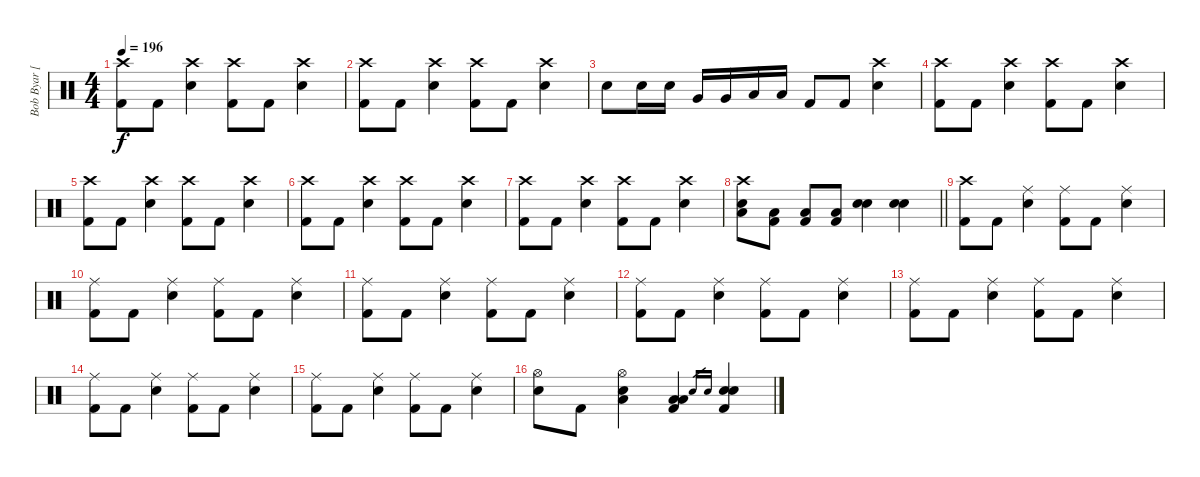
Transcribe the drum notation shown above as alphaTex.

\track ("Bob Byar [Drums]" "Bob Byar [") {instrument percussion}
\staff {score}
\articulation defaults
\ts (4 4)
\tempo 196
\clef neutral
\ks c
("Crash high (hit)" "Kick (hit) 2").8{dy f} "Kick (hit) 2".8 ("Crash high (hit)" "Electric Snare (hit)").4 ("Crash high (hit)" "Kick (hit) 2").8 "Kick (hit) 2".8 ("Crash high (hit)" "Electric Snare (hit)").4 |
("Crash high (hit)" "Kick (hit) 2").8 "Kick (hit) 2".8 ("Crash high (hit)" "Electric Snare (hit)").4 ("Crash high (hit)" "Kick (hit) 2").8 "Kick (hit) 2".8 ("Crash high (hit)" "Electric Snare (hit)").4 |
"Electric Snare (hit)".8 "Electric Snare (hit)".16 "Electric Snare (hit)".16 "Very Low Tom (hit)".16 "Very Low Tom (hit)".16 "Low Floor Tom (hit)".16 "Low Floor Tom (hit)".16 "Kick (hit) 2".8 "Kick (hit) 2".8 ("Crash high (hit)" "Electric Snare (hit)").4 |
("Crash high (hit)" "Kick (hit) 2").8 "Kick (hit) 2".8 ("Crash high (hit)" "Electric Snare (hit)").4 ("Crash high (hit)" "Kick (hit) 2").8 "Kick (hit) 2".8 ("Crash high (hit)" "Electric Snare (hit)").4 |
("Crash high (hit)" "Kick (hit) 2").8 "Kick (hit) 2".8 ("Crash high (hit)" "Electric Snare (hit)").4 ("Crash high (hit)" "Kick (hit) 2").8 "Kick (hit) 2".8 ("Crash high (hit)" "Electric Snare (hit)").4 |
("Crash high (hit)" "Kick (hit) 2").8 "Kick (hit) 2".8 ("Crash high (hit)" "Electric Snare (hit)").4 ("Crash high (hit)" "Kick (hit) 2").8 "Kick (hit) 2".8 ("Crash high (hit)" "Electric Snare (hit)").4 |
("Crash high (hit)" "Kick (hit) 2").8 "Kick (hit) 2".8 ("Crash high (hit)" "Electric Snare (hit)").4 ("Crash high (hit)" "Kick (hit) 2").8 "Kick (hit) 2".8 ("Crash high (hit)" "Electric Snare (hit)").4 |
\barLineRight lightlight
("Crash high (hit)" "Electric Snare (hit)" "Low Floor Tom (hit)").8 ("Low Floor Tom (hit)" "Kick (hit) 2").8 ("Low Floor Tom (hit)" "Kick (hit) 2").8 ("Low Floor Tom (hit)" "Kick (hit) 2").8 ("Electric Snare (hit)" "Electric Snare (hit)").4 ("Electric Snare (hit)" "Electric Snare (hit)").4 |
("Crash high (hit)" "Kick (hit) 2").8 "Kick (hit) 2".8 ("Ride (middle)" "Electric Snare (hit)").4 ("Ride (middle)" "Kick (hit) 2").8 "Kick (hit) 2".8 ("Ride (middle)" "Electric Snare (hit)").4 |
("Ride (middle)" "Kick (hit) 2").8 "Kick (hit) 2".8 ("Ride (middle)" "Electric Snare (hit)").4 ("Ride (middle)" "Kick (hit) 2").8 "Kick (hit) 2".8 ("Ride (middle)" "Electric Snare (hit)").4 |
("Ride (middle)" "Kick (hit) 2").8 "Kick (hit) 2".8 ("Ride (middle)" "Electric Snare (hit)").4 ("Ride (middle)" "Kick (hit) 2").8 "Kick (hit) 2".8 ("Ride (middle)" "Electric Snare (hit)").4 |
("Ride (middle)" "Kick (hit) 2").8 "Kick (hit) 2".8 ("Ride (middle)" "Electric Snare (hit)").4 ("Ride (middle)" "Kick (hit) 2").8 "Kick (hit) 2".8 ("Ride (middle)" "Electric Snare (hit)").4 |
("Ride (middle)" "Kick (hit) 2").8 "Kick (hit) 2".8 ("Ride (middle)" "Electric Snare (hit)").4 ("Ride (middle)" "Kick (hit) 2").8 "Kick (hit) 2".8 ("Ride (middle)" "Electric Snare (hit)").4 |
("Ride (middle)" "Kick (hit) 2").8 "Kick (hit) 2".8 ("Ride (middle)" "Electric Snare (hit)").4 ("Ride (middle)" "Kick (hit) 2").8 "Kick (hit) 2".8 ("Ride (middle)" "Electric Snare (hit)").4 |
("Ride (middle)" "Kick (hit) 2").8 "Kick (hit) 2".8 ("Ride (middle)" "Electric Snare (hit)").4 ("Ride (middle)" "Kick (hit) 2").8 "Kick (hit) 2".8 ("Ride (middle)" "Electric Snare (hit)").4 |
("Hi-Hat (open)" "Electric Snare (hit)").8 "Kick (hit) 2".8 ("Hi-Hat (open)" "Low Floor Tom (hit)" "Electric Snare (hit)").4 ("Low Floor Tom (hit)" "Low Floor Tom (hit)" "Kick (hit) 2").4 "Electric Snare (hit)".16{gr} "Electric Snare (hit)".16{gr} ("Electric Snare (hit)" "Electric Snare (hit)" "Kick (hit) 2").4
